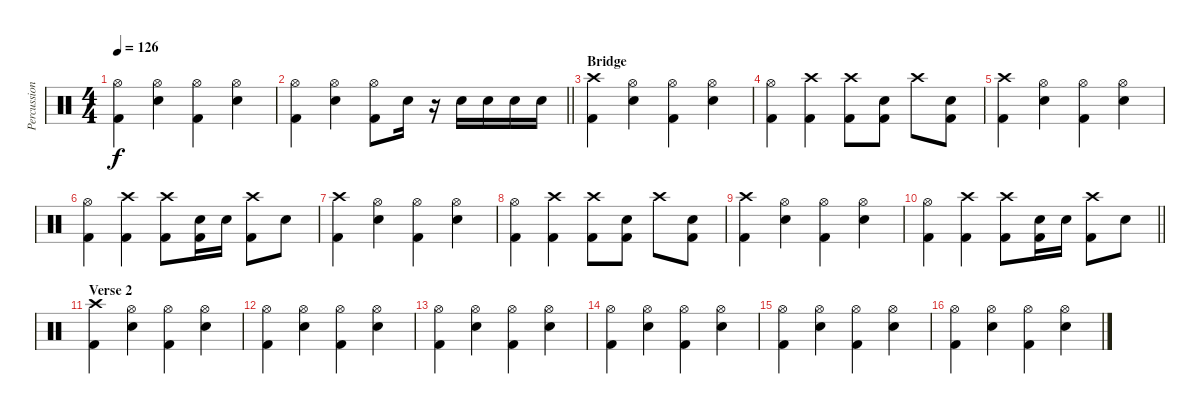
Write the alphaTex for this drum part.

\track ("Percussion" "Percussion") {instrument percussion}
\staff {score}
\articulation defaults
\ts (4 4)
\tempo 126
\clef neutral
\ks c
("Hi-Hat (open)" "Kick (hit) 2").4{dy f} ("Hi-Hat (open)" "Electric Snare (hit)").4 ("Hi-Hat (open)" "Kick (hit) 2").4 ("Hi-Hat (open)" "Electric Snare (hit)").4 |
\barLineRight lightlight
("Hi-Hat (open)" "Kick (hit) 2").4 ("Hi-Hat (open)" "Electric Snare (hit)").4 ("Hi-Hat (open)" "Kick (hit) 2").8 "Electric Snare (hit)".16 r.16 "Electric Snare (hit)".16 "Electric Snare (hit)".16 "Electric Snare (hit)".16 "Electric Snare (hit)".16 |
\section ("" "Bridge")
("Crash high (hit)" "Kick (hit) 2").4 ("Hi-Hat (open)" "Electric Snare (hit)").4 ("Hi-Hat (open)" "Kick (hit) 2").4 ("Hi-Hat (open)" "Electric Snare (hit)").4 |
("Hi-Hat (open)" "Kick (hit) 2").4 ("Crash high (hit)" "Kick (hit) 2").4 ("Crash high (hit)" "Kick (hit) 2").8 ("Electric Snare (hit)" "Kick (hit) 2").8 "Crash high (hit)".8 ("Electric Snare (hit)" "Kick (hit) 2").8 |
("Crash high (hit)" "Kick (hit) 2").4 ("Hi-Hat (open)" "Electric Snare (hit)").4 ("Hi-Hat (open)" "Kick (hit) 2").4 ("Hi-Hat (open)" "Electric Snare (hit)").4 |
("Hi-Hat (open)" "Kick (hit) 2").4 ("Crash high (hit)" "Kick (hit) 2").4 ("Crash high (hit)" "Kick (hit) 2").8 ("Electric Snare (hit)" "Kick (hit) 2").16 "Electric Snare (hit)".16 ("Crash high (hit)" "Kick (hit) 2").8 "Electric Snare (hit)".8 |
("Crash high (hit)" "Kick (hit) 2").4 ("Hi-Hat (open)" "Electric Snare (hit)").4 ("Hi-Hat (open)" "Kick (hit) 2").4 ("Hi-Hat (open)" "Electric Snare (hit)").4 |
("Hi-Hat (open)" "Kick (hit) 2").4 ("Crash high (hit)" "Kick (hit) 2").4 ("Crash high (hit)" "Kick (hit) 2").8 ("Electric Snare (hit)" "Kick (hit) 2").8 "Crash high (hit)".8 ("Electric Snare (hit)" "Kick (hit) 2").8 |
("Crash high (hit)" "Kick (hit) 2").4 ("Hi-Hat (open)" "Electric Snare (hit)").4 ("Hi-Hat (open)" "Kick (hit) 2").4 ("Hi-Hat (open)" "Electric Snare (hit)").4 |
\barLineRight lightlight
("Hi-Hat (open)" "Kick (hit) 2").4 ("Crash high (hit)" "Kick (hit) 2").4 ("Crash high (hit)" "Kick (hit) 2").8 ("Electric Snare (hit)" "Kick (hit) 2").16 "Electric Snare (hit)".16 ("Crash high (hit)" "Kick (hit) 2").8 "Electric Snare (hit)".8 |
\section ("" "Verse 2")
("Crash high (hit)" "Kick (hit) 2").4 ("Hi-Hat (open)" "Electric Snare (hit)").4 ("Hi-Hat (open)" "Kick (hit) 2").4 ("Hi-Hat (open)" "Electric Snare (hit)").4 |
("Hi-Hat (open)" "Kick (hit) 2").4 ("Hi-Hat (open)" "Electric Snare (hit)").4 ("Hi-Hat (open)" "Kick (hit) 2").4 ("Hi-Hat (open)" "Electric Snare (hit)").4 |
("Hi-Hat (open)" "Kick (hit) 2").4 ("Hi-Hat (open)" "Electric Snare (hit)").4 ("Hi-Hat (open)" "Kick (hit) 2").4 ("Hi-Hat (open)" "Electric Snare (hit)").4 |
("Hi-Hat (open)" "Kick (hit) 2").4 ("Hi-Hat (open)" "Electric Snare (hit)").4 ("Hi-Hat (open)" "Kick (hit) 2").4 ("Hi-Hat (open)" "Electric Snare (hit)").4 |
("Hi-Hat (open)" "Kick (hit) 2").4 ("Hi-Hat (open)" "Electric Snare (hit)").4 ("Hi-Hat (open)" "Kick (hit) 2").4 ("Hi-Hat (open)" "Electric Snare (hit)").4 |
("Hi-Hat (open)" "Kick (hit) 2").4 ("Hi-Hat (open)" "Electric Snare (hit)").4 ("Hi-Hat (open)" "Kick (hit) 2").4 ("Hi-Hat (open)" "Electric Snare (hit)").4
